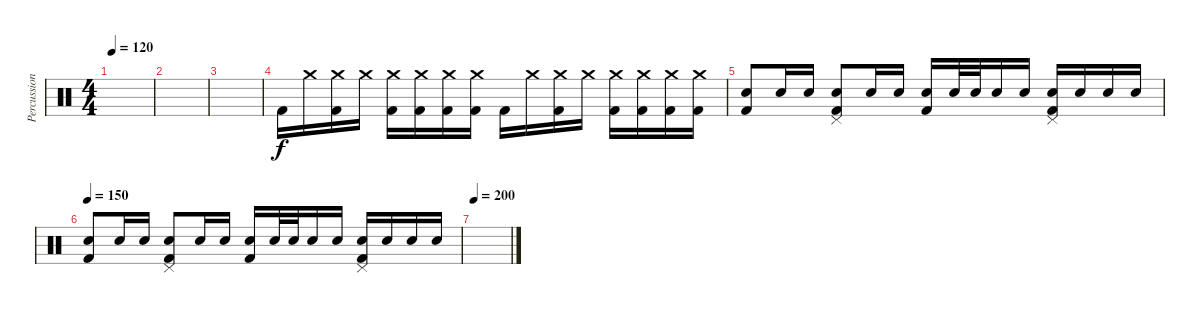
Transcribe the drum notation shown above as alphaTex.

\track ("Percussion" "Percussion") {instrument percussion}
\staff {score}
\articulation defaults
\ts (4 4)
\tempo 120
\clef neutral
\ks c
|
|
|
"Kick (hit) 2".16 "Crash medium (hit)".16 ("Crash medium (hit)" "Kick (hit) 2").16 "Crash medium (hit)".16 ("Crash medium (hit)" "Kick (hit) 2").16 ("Crash medium (hit)" "Kick (hit) 2").16 ("Crash medium (hit)" "Kick (hit) 2").16 ("Crash medium (hit)" "Kick (hit) 2").16 "Kick (hit) 2".16 "Crash medium (hit)".16 ("Crash medium (hit)" "Kick (hit) 2").16 "Crash medium (hit)".16 ("Crash medium (hit)" "Kick (hit) 2").16 ("Crash medium (hit)" "Kick (hit) 2").16 ("Crash medium (hit)" "Kick (hit) 2").16 ("Crash medium (hit)" "Kick (hit) 2").16 |
("Electric Snare (hit)" "Kick (hit) 2").8 "Electric Snare (hit)".16 "Electric Snare (hit)".16 ("Electric Snare (hit)" "Kick (hit) 2" "Pedal Hi-Hat (hit)").8 "Electric Snare (hit)".16 "Electric Snare (hit)".16 ("Electric Snare (hit)" "Kick (hit) 2").16 "Electric Snare (hit)".32 "Electric Snare (hit)".32 "Electric Snare (hit)".16 "Electric Snare (hit)".16 ("Electric Snare (hit)" "Kick (hit) 2" "Pedal Hi-Hat (hit)").16 "Electric Snare (hit)".16 "Electric Snare (hit)".16 "Electric Snare (hit)".16 |
\tempo 150
("Electric Snare (hit)" "Kick (hit) 2").8 "Electric Snare (hit)".16 "Electric Snare (hit)".16 ("Electric Snare (hit)" "Kick (hit) 2" "Pedal Hi-Hat (hit)").8 "Electric Snare (hit)".16 "Electric Snare (hit)".16 ("Electric Snare (hit)" "Kick (hit) 2").16 "Electric Snare (hit)".32 "Electric Snare (hit)".32 "Electric Snare (hit)".16 "Electric Snare (hit)".16 ("Electric Snare (hit)" "Kick (hit) 2" "Pedal Hi-Hat (hit)").16 "Electric Snare (hit)".16 "Electric Snare (hit)".16 "Electric Snare (hit)".16 |
\tempo 200
